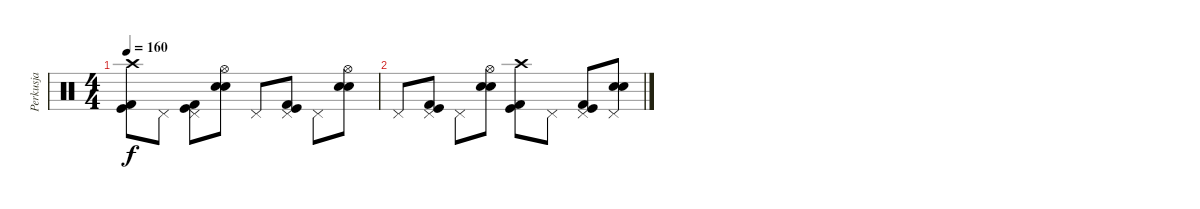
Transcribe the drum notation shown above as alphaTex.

\track ("Perkusja" "Perkusja") {instrument percussion}
\staff {score}
\articulation defaults
\ts (4 4)
\tempo 160
\clef neutral
\ks c
("Crash high (hit)" "Kick (hit)" "Kick (hit) 2").8{dy f} "Pedal Hi-Hat (hit)".8 ("Pedal Hi-Hat (hit)" "Kick (hit)" "Kick (hit) 2").8 ("Hi-Hat (open)" "Snare (hit) 2" "Electric Snare (hit)").8 "Pedal Hi-Hat (hit)".8 ("Pedal Hi-Hat (hit)" "Kick (hit)" "Kick (hit) 2").8 "Pedal Hi-Hat (hit)".8 ("Hi-Hat (open)" "Snare (hit) 2" "Electric Snare (hit)").8 |
"Pedal Hi-Hat (hit)".8 ("Pedal Hi-Hat (hit)" "Kick (hit)" "Kick (hit) 2").8 "Pedal Hi-Hat (hit)".8 ("Hi-Hat (open)" "Snare (hit) 2" "Electric Snare (hit)").8 ("Crash high (hit)" "Kick (hit)" "Kick (hit) 2").8 "Pedal Hi-Hat (hit)".8 ("Pedal Hi-Hat (hit)" "Kick (hit)" "Kick (hit) 2").8 ("Pedal Hi-Hat (hit)" "Snare (hit) 2" "Electric Snare (hit)").8
